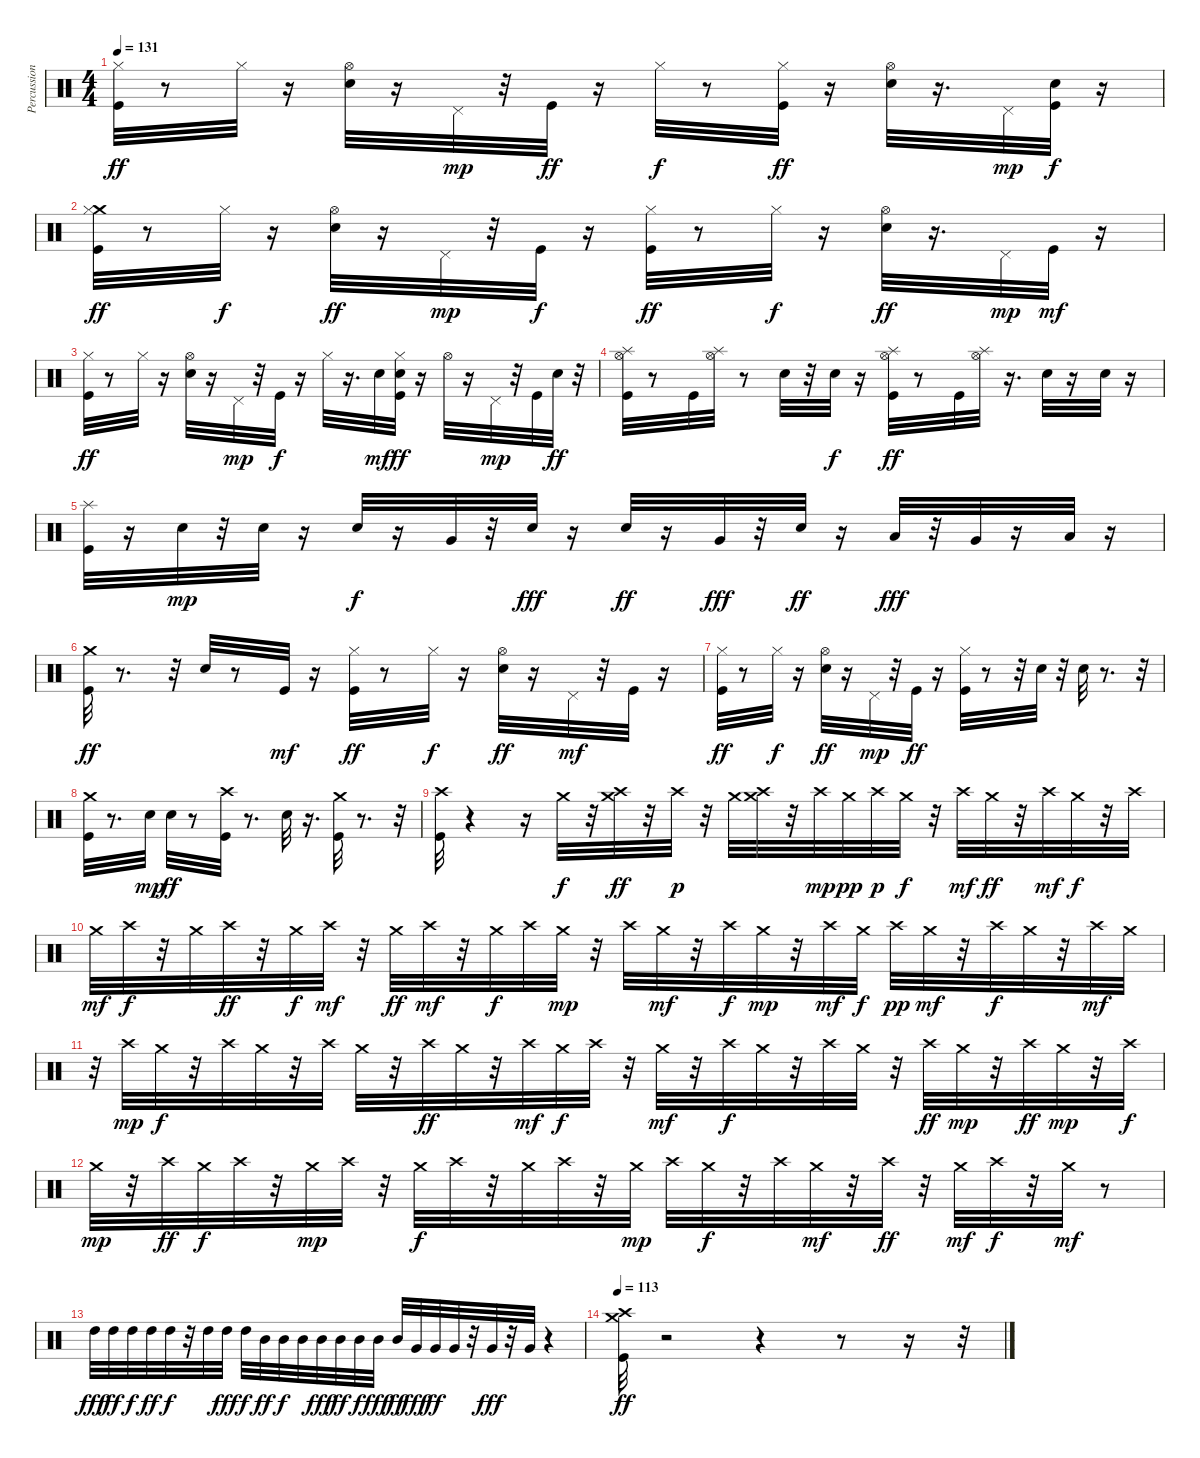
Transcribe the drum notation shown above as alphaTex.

\track ("Percussion" "Percussion") {instrument percussion}
\staff {score}
\articulation defaults
\ts (4 4)
\tempo 131
\clef neutral
\ks c
("Kick (hit)" "Hi-Hat (closed)").32{dy ff} r.8 "Hi-Hat (closed)".32 r.16 ("Hi-Hat (open)" "Electric Snare (hit)").32 r.16 "Pedal Hi-Hat (hit)".32{dy mp} r.32 "Kick (hit)".32{dy ff} r.16 "Hi-Hat (closed)".32{dy f} r.8 ("Kick (hit)" "Hi-Hat (closed)").32{dy ff} r.16 ("Hi-Hat (open)" "Electric Snare (hit)").32 r.16{d} "Pedal Hi-Hat (hit)".32{dy mp} ("Electric Snare (hit)" "Kick (hit)").32{dy f} r.16 |
("Kick (hit)" "Crash medium (hit)" "Hi-Hat (closed)").32{dy ff} r.8 "Hi-Hat (closed)".32{dy f} r.16 ("Electric Snare (hit)" "Hi-Hat (open)").32{dy ff} r.16 "Pedal Hi-Hat (hit)".32{dy mp} r.32 "Kick (hit)".32{dy f} r.16 ("Kick (hit)" "Hi-Hat (closed)").32{dy ff} r.8 "Hi-Hat (closed)".32{dy f} r.16 ("Hi-Hat (open)" "Electric Snare (hit)").32{dy ff} r.16{d} "Pedal Hi-Hat (hit)".32{dy mp} "Kick (hit)".32{dy mf} r.16 |
("Kick (hit)" "Hi-Hat (closed)").32{dy ff} r.8 "Hi-Hat (closed)".32 r.16 ("Electric Snare (hit)" "Hi-Hat (open)").32 r.16 "Pedal Hi-Hat (hit)".32{dy mp} r.32 "Kick (hit)".32{dy f} r.16 "Hi-Hat (closed)".32 r.16{d} "Electric Snare (hit)".32{dy mf} ("Kick (hit)" "Electric Snare (hit)" "Hi-Hat (closed)").32{dy ff} r.16 "Hi-Hat (open)".32 r.16 "Pedal Hi-Hat (hit)".32{dy mp} r.32 "Kick (hit)".32 "Electric Snare (hit)".32{dy ff} r.32 |
("Kick (hit)" "Splash (hit)" "Hi-Hat (open)").32 r.8 "Kick (hit)".32 ("Hi-Hat (open)" "Splash (hit)").32 r.8 "Electric Snare (hit)".32 r.32 "Electric Snare (hit)".32{dy f} r.16 ("Hi-Hat (open)" "Kick (hit)" "Splash (hit)").32{dy ff} r.8 "Kick (hit)".32 ("Splash (hit)" "Hi-Hat (open)").32 r.16{d} "Electric Snare (hit)".32 r.16 "Electric Snare (hit)".32 r.16 |
("Kick (hit)" "Splash (hit)").32 r.16 "Electric Snare (hit)".32{dy mp} r.32 "Electric Snare (hit)".32 r.16 "Electric Snare (hit)".32{dy f} r.16 "Very Low Tom (hit)".32 r.32 "Electric Snare (hit)".32{dy fff} r.16 "Electric Snare (hit)".32{dy ff} r.16 "Very Low Tom (hit)".32{dy fff} r.32 "Electric Snare (hit)".32{dy ff} r.16 "Low Tom (hit)".32{dy fff} r.32 "Very Low Tom (hit)".32 r.16 "Low Floor Tom (hit)".32 r.16 |
("Kick (hit)" "Crash medium (hit)").32{dy ff} r.8{d} r.32 "Electric Snare (hit)".32 r.8 "Kick (hit)".32{dy mf} r.16 ("Kick (hit)" "Hi-Hat (closed)").32{dy ff} r.8 "Hi-Hat (closed)".32{dy f} r.16 ("Hi-Hat (open)" "Electric Snare (hit)").32{dy ff} r.16 "Pedal Hi-Hat (hit)".32{dy mf} r.32 "Kick (hit)".32 r.16 |
("Kick (hit)" "Hi-Hat (closed)").32{dy ff} r.8 "Hi-Hat (closed)".32{dy f} r.16 ("Electric Snare (hit)" "Hi-Hat (open)").32{dy ff} r.16 "Pedal Hi-Hat (hit)".32{dy mp} r.32 "Kick (hit)".32{dy ff} r.16 ("Kick (hit)" "Hi-Hat (closed)").32 r.8 r.32 "Electric Snare (hit)".32 r.32 "Electric Snare (hit)".32 r.8{d} r.32 |
("Crash medium (hit)" "Kick (hit)").32 r.8{d} "Electric Snare (hit)".32{dy mp} "Electric Snare (hit)".32{dy ff} r.8 ("Crash high (hit)" "Kick (hit)").32 r.8{d} "Electric Snare (hit)".32 r.16{d} ("Kick (hit)" "Crash medium (hit)").32 r.8{d} r.32 |
("Kick (hit)" "Crash high (hit)").32 r.4 r.16 "Crash medium (hit)".32{dy f} r.32 ("Crash high (hit)" "Crash medium (hit)").32{dy ff} r.32 "Crash high (hit)".32{dy p} r.32 "Crash medium (hit)".32 ("Crash high (hit)" "Crash medium (hit)").32 r.32 "Crash high (hit)".32{dy mp} "Crash medium (hit)".32{dy pp} "Crash high (hit)".32{dy p} "Crash medium (hit)".32{dy f} r.32 "Crash high (hit)".32{dy mf} "Crash medium (hit)".32{dy ff} r.32 "Crash high (hit)".32{dy mf} "Crash medium (hit)".32{dy f} r.32 "Crash high (hit)".32 |
"Crash medium (hit)".32{dy mf} "Crash high (hit)".32{dy f} r.32 "Crash medium (hit)".32 "Crash high (hit)".32{dy ff} r.32 "Crash medium (hit)".32{dy f} "Crash high (hit)".32{dy mf} r.32 "Crash medium (hit)".32{dy ff} "Crash high (hit)".32{dy mf} r.32 "Crash medium (hit)".32{dy f} "Crash high (hit)".32 "Crash medium (hit)".32{dy mp} r.32 "Crash high (hit)".32 "Crash medium (hit)".32{dy mf} r.32 "Crash high (hit)".32{dy f} "Crash medium (hit)".32{dy mp} r.32 "Crash high (hit)".32{dy mf} "Crash medium (hit)".32{dy f} "Crash high (hit)".32{dy pp} "Crash medium (hit)".32{dy mf} r.32 "Crash high (hit)".32{dy f} "Crash medium (hit)".32 r.32 "Crash high (hit)".32{dy mf} "Crash medium (hit)".32 |
r.32 "Crash high (hit)".32{dy mp} "Crash medium (hit)".32{dy f} r.32 "Crash high (hit)".32 "Crash medium (hit)".32 r.32 "Crash high (hit)".32 "Crash medium (hit)".32 r.32 "Crash high (hit)".32{dy ff} "Crash medium (hit)".32 r.32 "Crash high (hit)".32{dy mf} "Crash medium (hit)".32{dy f} "Crash high (hit)".32 r.32 "Crash medium (hit)".32{dy mf} r.32 "Crash high (hit)".32{dy f} "Crash medium (hit)".32 r.32 "Crash high (hit)".32 "Crash medium (hit)".32 r.32 "Crash high (hit)".32{dy ff} "Crash medium (hit)".32{dy mp} r.32 "Crash high (hit)".32{dy ff} "Crash medium (hit)".32{dy mp} r.32 "Crash high (hit)".32{dy f} |
"Crash medium (hit)".32{dy mp} r.32 "Crash high (hit)".32{dy ff} "Crash medium (hit)".32{dy f} "Crash high (hit)".32 r.32 "Crash medium (hit)".32{dy mp} "Crash high (hit)".32 r.32 "Crash medium (hit)".32{dy f} "Crash high (hit)".32 r.32 "Crash medium (hit)".32 "Crash high (hit)".32 r.32 "Crash medium (hit)".32{dy mp} "Crash high (hit)".32 "Crash medium (hit)".32{dy f} r.32 "Crash high (hit)".32 "Crash medium (hit)".32{dy mf} r.32 "Crash high (hit)".32{dy ff} r.32 "Crash medium (hit)".32{dy mf} "Crash high (hit)".32{dy f} r.32 "Crash medium (hit)".32{dy mf} r.8 |
"High Tom (hit)".32{dy fff} "High Tom (hit)".32{dy ff} "High Tom (hit)".32{dy f} "High Tom (hit)".32{dy ff} "High Tom (hit)".32{dy f} r.32 "High Tom (hit)".32 "High Tom (hit)".32{dy fff} "High Tom (hit)".32{dy f} "Mid Tom (hit)".32{dy ff} "Mid Tom (hit)".32{dy f} "Mid Tom (hit)".32 "Mid Tom (hit)".32{dy fff} "Mid Tom (hit)".32{dy ff} "Mid Tom (hit)".32{dy f} "Mid Tom (hit)".32{dy fff} "Mid Tom (hit)".32{dy ff} "Very Low Tom (hit)".32{dy fff} "Very Low Tom (hit)".32{dy ff} "Very Low Tom (hit)".32 r.32 "Very Low Tom (hit)".32{dy fff} r.32 "Very Low Tom (hit)".32 r.4 |
\tempo 113
("Kick (hit)" "Crash high (hit)" "Crash medium (hit)").32{dy ff} r.2 r.4 r.8 r.16 r.32
